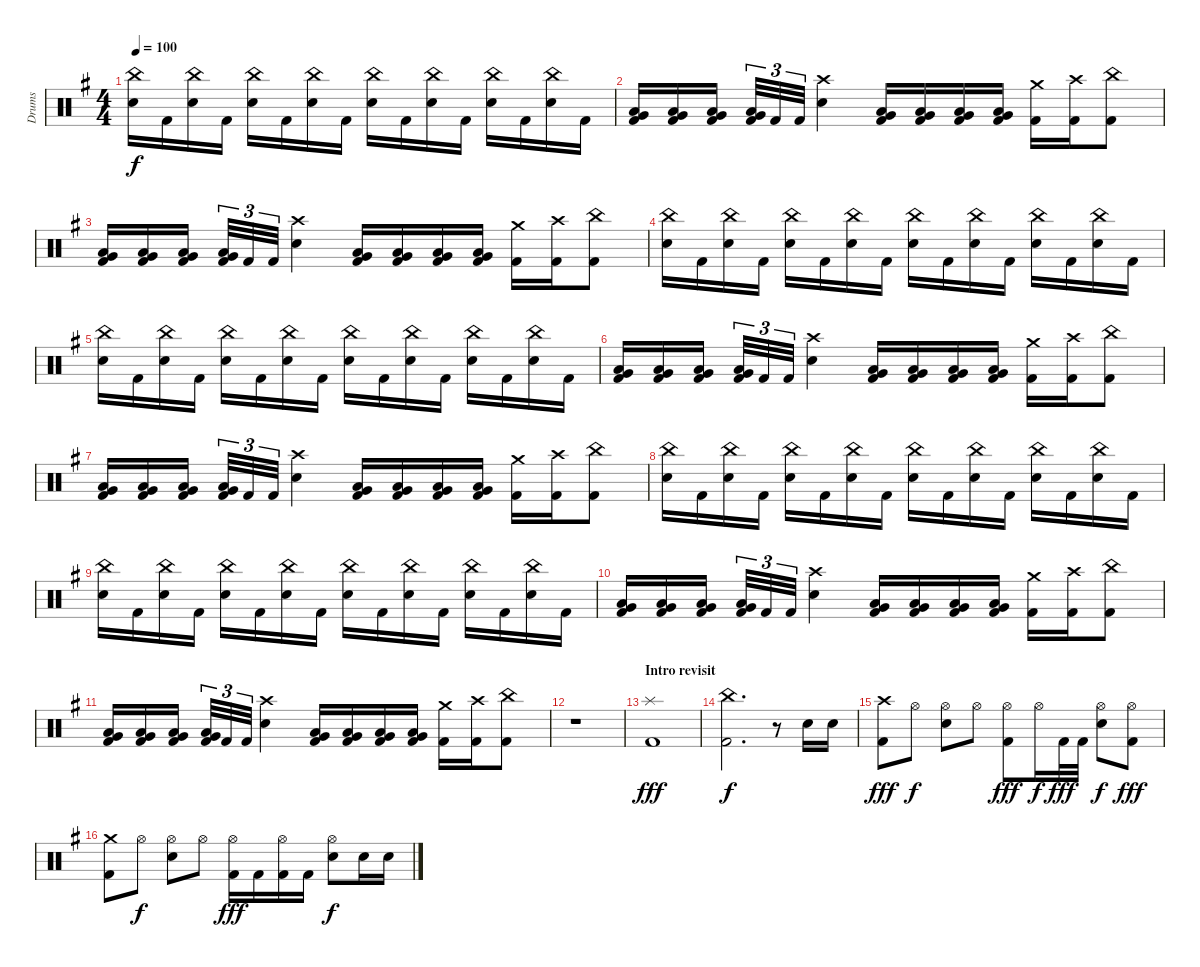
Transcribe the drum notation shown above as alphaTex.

\track ("Drums" "Drums") {instrument percussion}
\staff {score}
\articulation defaults
\ts (4 4)
\tempo 100
\clef neutral
\ks eminor
("China (hit)" "Snare (hit) 2").16{dy f} "Kick (hit) 2".16 ("China (hit)" "Snare (hit) 2").16 "Kick (hit) 2".16 ("China (hit)" "Snare (hit) 2").16 "Kick (hit) 2".16 ("China (hit)" "Snare (hit) 2").16 "Kick (hit) 2".16 ("China (hit)" "Snare (hit) 2").16 "Kick (hit) 2".16 ("China (hit)" "Snare (hit) 2").16 "Kick (hit) 2".16 ("China (hit)" "Snare (hit) 2").16 "Kick (hit) 2".16 ("China (hit)" "Snare (hit) 2").16 "Kick (hit) 2".16 |
("Very Low Tom (hit)" "Low Tom (hit)" "Kick (hit) 2").16 ("Very Low Tom (hit)" "Low Tom (hit)" "Kick (hit) 2").16 ("Very Low Tom (hit)" "Low Tom (hit)" "Kick (hit) 2").16 ("Very Low Tom (hit)" "Low Tom (hit)" "Kick (hit) 2").32{tu (3 2)} "Kick (hit) 2".32{tu (3 2)} "Kick (hit) 2".32{tu (3 2)} ("Crash high (hit)" "Snare (hit) 2").4 ("Very Low Tom (hit)" "Low Tom (hit)" "Kick (hit) 2").16 ("Very Low Tom (hit)" "Low Tom (hit)" "Kick (hit) 2").16 ("Very Low Tom (hit)" "Low Tom (hit)" "Kick (hit) 2").16 ("Very Low Tom (hit)" "Low Tom (hit)" "Kick (hit) 2").16 ("Crash medium (hit)" "Kick (hit) 2").16 ("Crash high (hit)" "Kick (hit) 2").16 ("China (hit)" "Kick (hit) 2").8 |
("Very Low Tom (hit)" "Low Tom (hit)" "Kick (hit) 2").16 ("Very Low Tom (hit)" "Low Tom (hit)" "Kick (hit) 2").16 ("Very Low Tom (hit)" "Low Tom (hit)" "Kick (hit) 2").16 ("Very Low Tom (hit)" "Low Tom (hit)" "Kick (hit) 2").32{tu (3 2)} "Kick (hit) 2".32{tu (3 2)} "Kick (hit) 2".32{tu (3 2)} ("Crash high (hit)" "Snare (hit) 2").4 ("Very Low Tom (hit)" "Low Tom (hit)" "Kick (hit) 2").16 ("Very Low Tom (hit)" "Low Tom (hit)" "Kick (hit) 2").16 ("Very Low Tom (hit)" "Low Tom (hit)" "Kick (hit) 2").16 ("Very Low Tom (hit)" "Low Tom (hit)" "Kick (hit) 2").16 ("Crash medium (hit)" "Kick (hit) 2").16 ("Crash high (hit)" "Kick (hit) 2").16 ("China (hit)" "Kick (hit) 2").8 |
("China (hit)" "Snare (hit) 2").16 "Kick (hit) 2".16 ("China (hit)" "Snare (hit) 2").16 "Kick (hit) 2".16 ("China (hit)" "Snare (hit) 2").16 "Kick (hit) 2".16 ("China (hit)" "Snare (hit) 2").16 "Kick (hit) 2".16 ("China (hit)" "Snare (hit) 2").16 "Kick (hit) 2".16 ("China (hit)" "Snare (hit) 2").16 "Kick (hit) 2".16 ("China (hit)" "Snare (hit) 2").16 "Kick (hit) 2".16 ("China (hit)" "Snare (hit) 2").16 "Kick (hit) 2".16 |
("China (hit)" "Snare (hit) 2").16 "Kick (hit) 2".16 ("China (hit)" "Snare (hit) 2").16 "Kick (hit) 2".16 ("China (hit)" "Snare (hit) 2").16 "Kick (hit) 2".16 ("China (hit)" "Snare (hit) 2").16 "Kick (hit) 2".16 ("China (hit)" "Snare (hit) 2").16 "Kick (hit) 2".16 ("China (hit)" "Snare (hit) 2").16 "Kick (hit) 2".16 ("China (hit)" "Snare (hit) 2").16 "Kick (hit) 2".16 ("China (hit)" "Snare (hit) 2").16 "Kick (hit) 2".16 |
("Very Low Tom (hit)" "Low Tom (hit)" "Kick (hit) 2").16 ("Very Low Tom (hit)" "Low Tom (hit)" "Kick (hit) 2").16 ("Very Low Tom (hit)" "Low Tom (hit)" "Kick (hit) 2").16 ("Very Low Tom (hit)" "Low Tom (hit)" "Kick (hit) 2").32{tu (3 2)} "Kick (hit) 2".32{tu (3 2)} "Kick (hit) 2".32{tu (3 2)} ("Crash high (hit)" "Snare (hit) 2").4 ("Very Low Tom (hit)" "Low Tom (hit)" "Kick (hit) 2").16 ("Very Low Tom (hit)" "Low Tom (hit)" "Kick (hit) 2").16 ("Very Low Tom (hit)" "Low Tom (hit)" "Kick (hit) 2").16 ("Very Low Tom (hit)" "Low Tom (hit)" "Kick (hit) 2").16 ("Crash medium (hit)" "Kick (hit) 2").16 ("Crash high (hit)" "Kick (hit) 2").16 ("China (hit)" "Kick (hit) 2").8 |
("Very Low Tom (hit)" "Low Tom (hit)" "Kick (hit) 2").16 ("Very Low Tom (hit)" "Low Tom (hit)" "Kick (hit) 2").16 ("Very Low Tom (hit)" "Low Tom (hit)" "Kick (hit) 2").16 ("Very Low Tom (hit)" "Low Tom (hit)" "Kick (hit) 2").32{tu (3 2)} "Kick (hit) 2".32{tu (3 2)} "Kick (hit) 2".32{tu (3 2)} ("Crash high (hit)" "Snare (hit) 2").4 ("Very Low Tom (hit)" "Low Tom (hit)" "Kick (hit) 2").16 ("Very Low Tom (hit)" "Low Tom (hit)" "Kick (hit) 2").16 ("Very Low Tom (hit)" "Low Tom (hit)" "Kick (hit) 2").16 ("Very Low Tom (hit)" "Low Tom (hit)" "Kick (hit) 2").16 ("Crash medium (hit)" "Kick (hit) 2").16 ("Crash high (hit)" "Kick (hit) 2").16 ("China (hit)" "Kick (hit) 2").8 |
("China (hit)" "Snare (hit) 2").16 "Kick (hit) 2".16 ("China (hit)" "Snare (hit) 2").16 "Kick (hit) 2".16 ("China (hit)" "Snare (hit) 2").16 "Kick (hit) 2".16 ("China (hit)" "Snare (hit) 2").16 "Kick (hit) 2".16 ("China (hit)" "Snare (hit) 2").16 "Kick (hit) 2".16 ("China (hit)" "Snare (hit) 2").16 "Kick (hit) 2".16 ("China (hit)" "Snare (hit) 2").16 "Kick (hit) 2".16 ("China (hit)" "Snare (hit) 2").16 "Kick (hit) 2".16 |
("China (hit)" "Snare (hit) 2").16 "Kick (hit) 2".16 ("China (hit)" "Snare (hit) 2").16 "Kick (hit) 2".16 ("China (hit)" "Snare (hit) 2").16 "Kick (hit) 2".16 ("China (hit)" "Snare (hit) 2").16 "Kick (hit) 2".16 ("China (hit)" "Snare (hit) 2").16 "Kick (hit) 2".16 ("China (hit)" "Snare (hit) 2").16 "Kick (hit) 2".16 ("China (hit)" "Snare (hit) 2").16 "Kick (hit) 2".16 ("China (hit)" "Snare (hit) 2").16 "Kick (hit) 2".16 |
("Very Low Tom (hit)" "Low Tom (hit)" "Kick (hit) 2").16 ("Very Low Tom (hit)" "Low Tom (hit)" "Kick (hit) 2").16 ("Very Low Tom (hit)" "Low Tom (hit)" "Kick (hit) 2").16 ("Very Low Tom (hit)" "Low Tom (hit)" "Kick (hit) 2").32{tu (3 2)} "Kick (hit) 2".32{tu (3 2)} "Kick (hit) 2".32{tu (3 2)} ("Crash high (hit)" "Snare (hit) 2").4 ("Very Low Tom (hit)" "Low Tom (hit)" "Kick (hit) 2").16 ("Very Low Tom (hit)" "Low Tom (hit)" "Kick (hit) 2").16 ("Very Low Tom (hit)" "Low Tom (hit)" "Kick (hit) 2").16 ("Very Low Tom (hit)" "Low Tom (hit)" "Kick (hit) 2").16 ("Crash medium (hit)" "Kick (hit) 2").16 ("Crash high (hit)" "Kick (hit) 2").16 ("China (hit)" "Kick (hit) 2").8 |
("Very Low Tom (hit)" "Low Tom (hit)" "Kick (hit) 2").16 ("Very Low Tom (hit)" "Low Tom (hit)" "Kick (hit) 2").16 ("Very Low Tom (hit)" "Low Tom (hit)" "Kick (hit) 2").16 ("Very Low Tom (hit)" "Low Tom (hit)" "Kick (hit) 2").32{tu (3 2)} "Kick (hit) 2".32{tu (3 2)} "Kick (hit) 2".32{tu (3 2)} ("Crash high (hit)" "Snare (hit) 2").4 ("Very Low Tom (hit)" "Low Tom (hit)" "Kick (hit) 2").16 ("Very Low Tom (hit)" "Low Tom (hit)" "Kick (hit) 2").16 ("Very Low Tom (hit)" "Low Tom (hit)" "Kick (hit) 2").16 ("Very Low Tom (hit)" "Low Tom (hit)" "Kick (hit) 2").16 ("Crash medium (hit)" "Kick (hit) 2").16 ("Crash high (hit)" "Kick (hit) 2").16 ("China (hit)" "Kick (hit) 2").8 |
r.1 |
\section ("" "Intro revisit")
("Splash (hit)" "Kick (hit) 2").1{dy fff} |
("China (hit)" "Kick (hit) 2").2{d dy f} r.8 "Snare (hit) 2".16 "Snare (hit) 2".16 |
("Crash high (hit)" "Kick (hit) 2").8{dy fff} "Hi-Hat (open)".8{dy f} ("Hi-Hat (open)" "Snare (hit) 2").8 "Hi-Hat (open)".8 ("Hi-Hat (open)" "Kick (hit) 2").8{dy fff} "Hi-Hat (open)".16{dy f} "Kick (hit) 2".32{dy fff} "Kick (hit) 2".32 ("Hi-Hat (open)" "Snare (hit) 2").8{dy f} ("Hi-Hat (open)" "Kick (hit) 2").8{dy fff} |
("Crash medium (hit)" "Kick (hit) 2").8 "Hi-Hat (open)".8{dy f} ("Hi-Hat (open)" "Snare (hit) 2").8 "Hi-Hat (open)".8 ("Hi-Hat (open)" "Kick (hit) 2").16{dy fff} "Kick (hit) 2".16 ("Hi-Hat (open)" "Kick (hit) 2").16 "Kick (hit) 2".16 ("Hi-Hat (open)" "Snare (hit) 2").8{dy f} "Snare (hit) 2".16 "Snare (hit) 2".16
